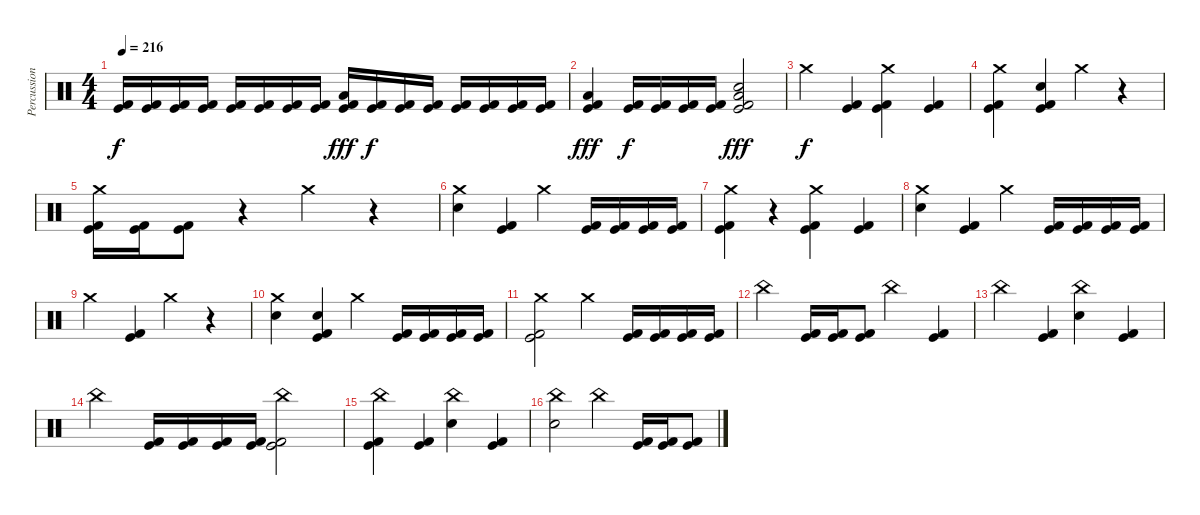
\track ("Percussions" "Percussion") {instrument percussion}
\staff {score}
\articulation defaults
\ts (4 4)
\tempo 216
\clef neutral
\ks c
("Kick (hit)" "Kick (hit) 2").16{dy f} ("Kick (hit)" "Kick (hit) 2").16 ("Kick (hit)" "Kick (hit) 2").16 ("Kick (hit)" "Kick (hit) 2").16 ("Kick (hit)" "Kick (hit) 2").16 ("Kick (hit)" "Kick (hit) 2").16 ("Kick (hit)" "Kick (hit) 2").16 ("Kick (hit)" "Kick (hit) 2").16 ("Low Tom (hit)" "Kick (hit)" "Kick (hit) 2").16{dy fff} ("Kick (hit)" "Kick (hit) 2").16{dy f} ("Kick (hit)" "Kick (hit) 2").16 ("Kick (hit)" "Kick (hit) 2").16 ("Kick (hit)" "Kick (hit) 2").16 ("Kick (hit)" "Kick (hit) 2").16 ("Kick (hit)" "Kick (hit) 2").16 ("Kick (hit)" "Kick (hit) 2").16 |
("Low Tom (hit)" "Kick (hit)" "Kick (hit) 2").4{dy fff} ("Kick (hit)" "Kick (hit) 2").16{dy f} ("Kick (hit)" "Kick (hit) 2").16 ("Kick (hit)" "Kick (hit) 2").16 ("Kick (hit)" "Kick (hit) 2").16 ("Low Floor Tom (hit)" "Electric Snare (hit)" "Kick (hit)" "Kick (hit) 2").2{dy fff} |
"Crash medium (hit)".4{dy f} ("Kick (hit)" "Kick (hit) 2").4 ("Crash medium (hit)" "Kick (hit)" "Kick (hit) 2").4 ("Kick (hit)" "Kick (hit) 2").4 |
("Crash medium (hit)" "Kick (hit)" "Kick (hit) 2").4 ("Electric Snare (hit)" "Kick (hit)" "Kick (hit) 2").4 "Crash medium (hit)".4 r.4 |
("Crash medium (hit)" "Kick (hit)" "Kick (hit) 2").16 ("Kick (hit)" "Kick (hit) 2").16 ("Kick (hit)" "Kick (hit) 2").8 r.4 "Crash medium (hit)".4 r.4 |
("Crash medium (hit)" "Electric Snare (hit)").4 ("Kick (hit)" "Kick (hit) 2").4 "Crash medium (hit)".4 ("Kick (hit)" "Kick (hit) 2").16 ("Kick (hit)" "Kick (hit) 2").16 ("Kick (hit)" "Kick (hit) 2").16 ("Kick (hit)" "Kick (hit) 2").16 |
("Crash medium (hit)" "Kick (hit)" "Kick (hit) 2").4 r.4 ("Crash medium (hit)" "Kick (hit)" "Kick (hit) 2").4 ("Kick (hit)" "Kick (hit) 2").4 |
("Crash medium (hit)" "Electric Snare (hit)").4 ("Kick (hit)" "Kick (hit) 2").4 "Crash medium (hit)".4 ("Kick (hit)" "Kick (hit) 2").16 ("Kick (hit)" "Kick (hit) 2").16 ("Kick (hit)" "Kick (hit) 2").16 ("Kick (hit)" "Kick (hit) 2").16 |
"Crash medium (hit)".4 ("Kick (hit)" "Kick (hit) 2").4 "Crash medium (hit)".4 r.4 |
("Crash medium (hit)" "Electric Snare (hit)").4 ("Electric Snare (hit)" "Kick (hit)" "Kick (hit) 2").4 "Crash medium (hit)".4 ("Kick (hit)" "Kick (hit) 2").16 ("Kick (hit)" "Kick (hit) 2").16 ("Kick (hit)" "Kick (hit) 2").16 ("Kick (hit)" "Kick (hit) 2").16 |
("Crash medium (hit)" "Kick (hit)" "Kick (hit) 2").2 "Crash medium (hit)".4 ("Kick (hit)" "Kick (hit) 2").16 ("Kick (hit)" "Kick (hit) 2").16 ("Kick (hit)" "Kick (hit) 2").16 ("Kick (hit)" "Kick (hit) 2").16 |
"China (hit)".4 ("Kick (hit)" "Kick (hit) 2").16 ("Kick (hit)" "Kick (hit) 2").16 ("Kick (hit)" "Kick (hit) 2").8 "China (hit)".4 ("Kick (hit)" "Kick (hit) 2").4 |
"China (hit)".4 ("Kick (hit)" "Kick (hit) 2").4 ("China (hit)" "Electric Snare (hit)").4 ("Kick (hit)" "Kick (hit) 2").4 |
"China (hit)".4 ("Kick (hit)" "Kick (hit) 2").16 ("Kick (hit)" "Kick (hit) 2").16 ("Kick (hit)" "Kick (hit) 2").16 ("Kick (hit)" "Kick (hit) 2").16 ("China (hit)" "Kick (hit)" "Kick (hit) 2").2 |
("China (hit)" "Kick (hit)" "Kick (hit) 2").4 ("Kick (hit)" "Kick (hit) 2").4 ("China (hit)" "Electric Snare (hit)").4 ("Kick (hit)" "Kick (hit) 2").4 |
("China (hit)" "Electric Snare (hit)").2 "China (hit)".4 ("Kick (hit)" "Kick (hit) 2").16 ("Kick (hit)" "Kick (hit) 2").16 ("Kick (hit)" "Kick (hit) 2").8
